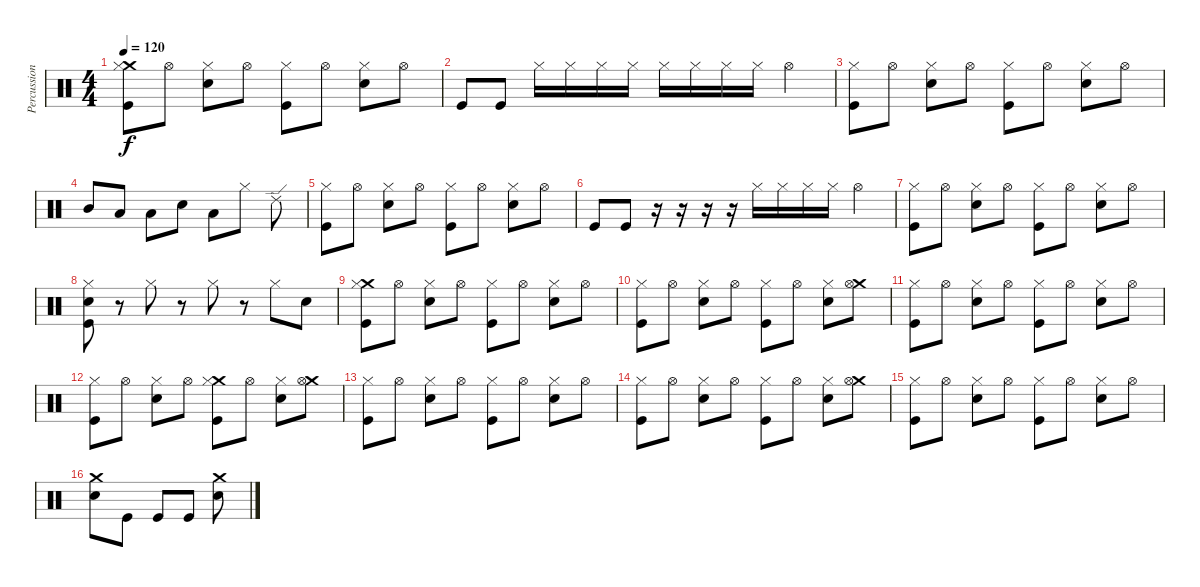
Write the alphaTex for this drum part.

\track ("Percussion" "Percussion") {instrument percussion}
\staff {score}
\articulation defaults
\ts (4 4)
\tempo 120
\clef neutral
\ks c
("Crash medium (hit)" "Hi-Hat (closed)" "Kick (hit)").8{dy f} "Hi-Hat (open)".8 ("Snare (hit) 2" "Hi-Hat (closed)").8 "Hi-Hat (open)".8 ("Hi-Hat (closed)" "Kick (hit)").8 "Hi-Hat (open)".8 ("Snare (hit) 2" "Hi-Hat (closed)").8 "Hi-Hat (open)".8 |
"Kick (hit)".8 "Kick (hit)".8 "Hi-Hat (closed)".16 "Hi-Hat (closed)".16 "Hi-Hat (closed)".16 "Hi-Hat (closed)".16 "Hi-Hat (closed)".16 "Hi-Hat (closed)".16 "Hi-Hat (closed)".16 "Hi-Hat (closed)".16 "Hi-Hat (open)".4 |
("Hi-Hat (closed)" "Kick (hit)").8 "Hi-Hat (open)".8 ("Snare (hit) 2" "Hi-Hat (closed)").8 "Hi-Hat (open)".8 ("Hi-Hat (closed)" "Kick (hit)").8 "Hi-Hat (open)".8 ("Snare (hit) 2" "Hi-Hat (closed)").8 "Hi-Hat (open)".8 |
"Mid Tom (hit)".8 "Low Tom (hit)".8 "Low Floor Tom (hit)".8 "Snare (hit) 2".8 "Low Floor Tom (hit)".8 "Hi-Hat (closed)".8 "Ride (edge) 2".8 |
("Hi-Hat (closed)" "Kick (hit)").8 "Hi-Hat (open)".8 ("Snare (hit) 2" "Hi-Hat (closed)").8 "Hi-Hat (open)".8 ("Hi-Hat (closed)" "Kick (hit)").8 "Hi-Hat (open)".8 ("Snare (hit) 2" "Hi-Hat (closed)").8 "Hi-Hat (open)".8 |
"Kick (hit)".8 "Kick (hit)".8 r.16 r.16 r.16 r.16 "Hi-Hat (closed)".16 "Hi-Hat (closed)".16 "Hi-Hat (closed)".16 "Hi-Hat (closed)".16 "Hi-Hat (open)".4 |
("Hi-Hat (closed)" "Kick (hit)").8 "Hi-Hat (open)".8 ("Snare (hit) 2" "Hi-Hat (closed)").8 "Hi-Hat (open)".8 ("Hi-Hat (closed)" "Kick (hit)").8 "Hi-Hat (open)".8 ("Snare (hit) 2" "Hi-Hat (closed)").8 "Hi-Hat (open)".8 |
("Snare (hit) 2" "Hi-Hat (closed)" "Kick (hit)").8 r.8 "Hi-Hat (closed)".8 r.8 "Hi-Hat (closed)".8 r.8 "Hi-Hat (closed)".8 "Snare (hit) 2".8 |
("Crash medium (hit)" "Hi-Hat (closed)" "Kick (hit)").8 "Hi-Hat (open)".8 ("Snare (hit) 2" "Hi-Hat (closed)").8 "Hi-Hat (open)".8 ("Hi-Hat (closed)" "Kick (hit)").8 "Hi-Hat (open)".8 ("Snare (hit) 2" "Hi-Hat (closed)").8 "Hi-Hat (open)".8 |
("Hi-Hat (closed)" "Kick (hit)").8 "Hi-Hat (open)".8 ("Snare (hit) 2" "Hi-Hat (closed)").8 "Hi-Hat (open)".8 ("Hi-Hat (closed)" "Kick (hit)").8 "Hi-Hat (open)".8 ("Snare (hit) 2" "Hi-Hat (closed)").8 ("Crash medium (hit)" "Hi-Hat (open)").8 |
("Hi-Hat (closed)" "Kick (hit)").8 "Hi-Hat (open)".8 ("Snare (hit) 2" "Hi-Hat (closed)").8 "Hi-Hat (open)".8 ("Hi-Hat (closed)" "Kick (hit)").8 "Hi-Hat (open)".8 ("Snare (hit) 2" "Hi-Hat (closed)").8 "Hi-Hat (open)".8 |
("Hi-Hat (closed)" "Kick (hit)").8 "Hi-Hat (open)".8 ("Snare (hit) 2" "Hi-Hat (closed)").8 "Hi-Hat (open)".8 ("Crash medium (hit)" "Hi-Hat (closed)" "Kick (hit)").8 "Hi-Hat (open)".8 ("Snare (hit) 2" "Hi-Hat (closed)").8 ("Crash medium (hit)" "Hi-Hat (open)").8 |
("Hi-Hat (closed)" "Kick (hit)").8 "Hi-Hat (open)".8 ("Snare (hit) 2" "Hi-Hat (closed)").8 "Hi-Hat (open)".8 ("Hi-Hat (closed)" "Kick (hit)").8 "Hi-Hat (open)".8 ("Snare (hit) 2" "Hi-Hat (closed)").8 "Hi-Hat (open)".8 |
("Hi-Hat (closed)" "Kick (hit)").8 "Hi-Hat (open)".8 ("Snare (hit) 2" "Hi-Hat (closed)").8 "Hi-Hat (open)".8 ("Hi-Hat (closed)" "Kick (hit)").8 "Hi-Hat (open)".8 ("Snare (hit) 2" "Hi-Hat (closed)").8 ("Crash medium (hit)" "Hi-Hat (open)").8 |
("Hi-Hat (closed)" "Kick (hit)").8 "Hi-Hat (open)".8 ("Snare (hit) 2" "Hi-Hat (closed)").8 "Hi-Hat (open)".8 ("Hi-Hat (closed)" "Kick (hit)").8 "Hi-Hat (open)".8 ("Snare (hit) 2" "Hi-Hat (closed)").8 "Hi-Hat (open)".8 |
("Crash medium (hit)" "Snare (hit) 2").8 "Kick (hit)".8 "Kick (hit)".8 "Kick (hit)".8 ("Crash medium (hit)" "Snare (hit) 2").8
